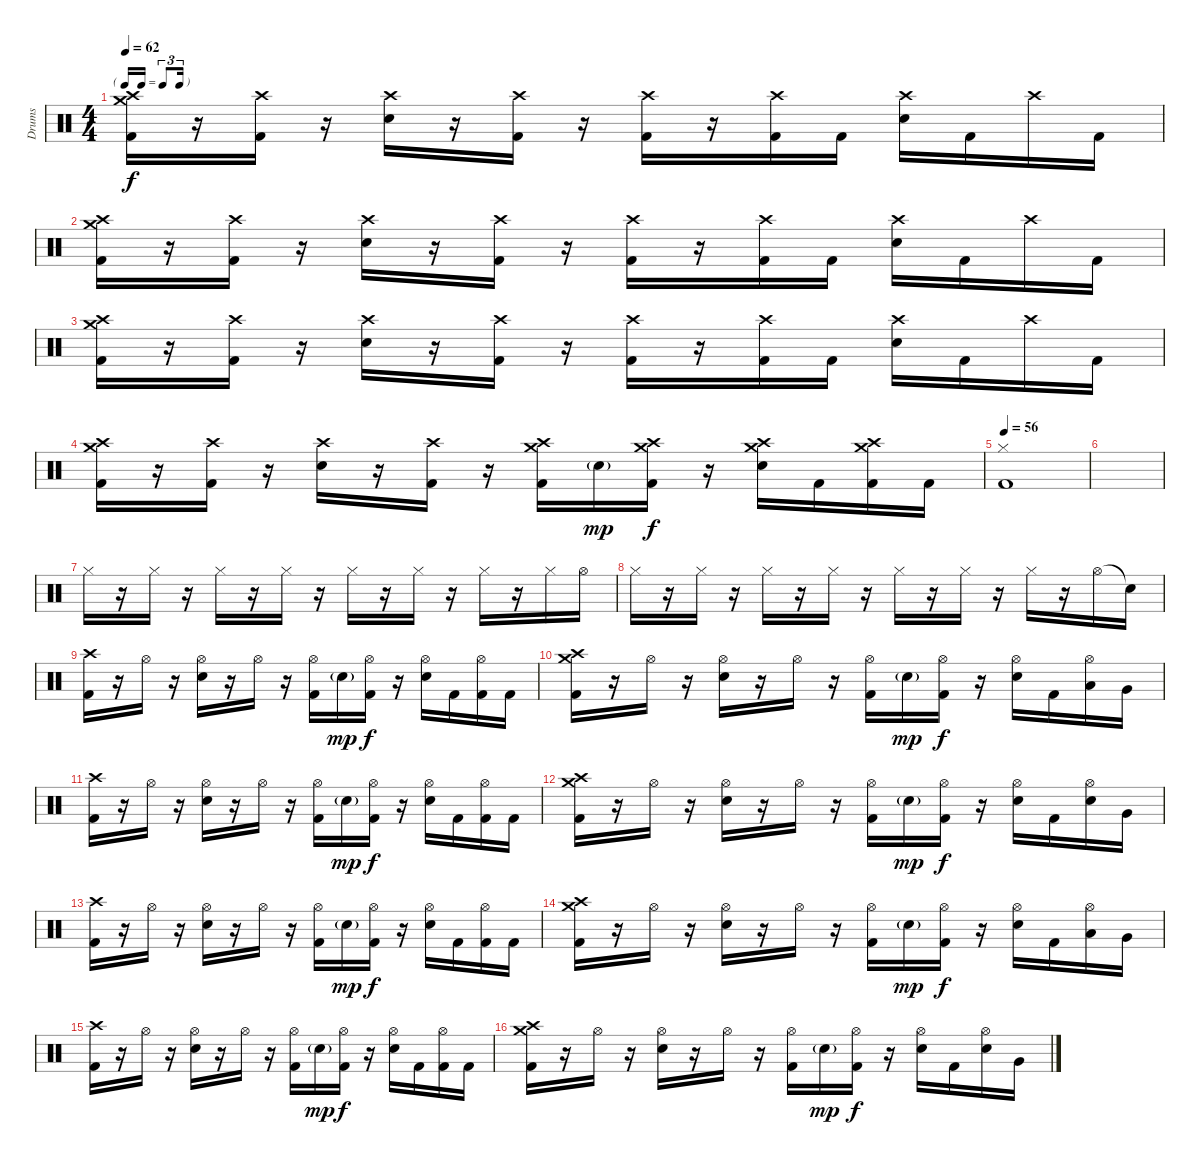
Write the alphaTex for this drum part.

\track ("Drums" "Drums") {instrument percussion}
\staff
\articulation defaults
\ts (4 4)
\tf triplet16th
\tempo 62
\clef neutral
\ks c
("Kick (hit) 2" "Crash high (hit)" "Crash medium (hit)").16{dy f} r.16 ("Kick (hit) 2" "Crash high (hit)").16 r.16 ("Electric Snare (hit)" "Crash high (hit)").16 r.16 ("Kick (hit) 2" "Crash high (hit)").16 r.16 ("Kick (hit) 2" "Crash high (hit)").16 r.16 ("Kick (hit) 2" "Crash high (hit)").16 "Kick (hit) 2".16 ("Electric Snare (hit)" "Crash high (hit)").16 "Kick (hit) 2".16 "Crash high (hit)".16 "Kick (hit) 2".16 |
("Kick (hit) 2" "Crash medium (hit)" "Crash high (hit)").16 r.16 ("Kick (hit) 2" "Crash high (hit)").16 r.16 ("Electric Snare (hit)" "Crash high (hit)").16 r.16 ("Kick (hit) 2" "Crash high (hit)").16 r.16 ("Kick (hit) 2" "Crash high (hit)").16 r.16 ("Kick (hit) 2" "Crash high (hit)").16 "Kick (hit) 2".16 ("Electric Snare (hit)" "Crash high (hit)").16 "Kick (hit) 2".16 "Crash high (hit)".16 "Kick (hit) 2".16 |
("Kick (hit) 2" "Crash high (hit)" "Crash medium (hit)").16 r.16 ("Kick (hit) 2" "Crash high (hit)").16 r.16 ("Electric Snare (hit)" "Crash high (hit)").16 r.16 ("Kick (hit) 2" "Crash high (hit)").16 r.16 ("Kick (hit) 2" "Crash high (hit)").16 r.16 ("Kick (hit) 2" "Crash high (hit)").16 "Kick (hit) 2".16 ("Electric Snare (hit)" "Crash high (hit)").16 "Kick (hit) 2".16 "Crash high (hit)".16 "Kick (hit) 2".16 |
("Kick (hit) 2" "Crash high (hit)" "Crash medium (hit)").16 r.16 ("Kick (hit) 2" "Crash high (hit)").16 r.16 ("Electric Snare (hit)" "Crash high (hit)").16 r.16 ("Kick (hit) 2" "Crash high (hit)").16 r.16 ("Kick (hit) 2" "Crash high (hit)" "Crash medium (hit)").16 "Electric Snare (hit)"{g}.16{dy mp} ("Kick (hit) 2" "Crash high (hit)" "Crash medium (hit)").16{dy f} r.16 ("Electric Snare (hit)" "Crash high (hit)" "Crash medium (hit)").16 "Kick (hit) 2".16 ("Kick (hit) 2" "Crash high (hit)" "Crash medium (hit)").16 "Kick (hit) 2".16 |
\tempo 56
("Kick (hit) 2" "Hi-Hat (closed)").1 |
|
"Hi-Hat (closed)".16 r.16 "Hi-Hat (closed)".16 r.16 "Hi-Hat (closed)".16 r.16 "Hi-Hat (closed)".16 r.16 "Hi-Hat (closed)".16 r.16 "Hi-Hat (closed)".16 r.16 "Hi-Hat (closed)".16 r.16 "Hi-Hat (closed)".16 "Hi-Hat (open)".16 |
"Hi-Hat (closed)".16 r.16 "Hi-Hat (closed)".16 r.16 "Hi-Hat (closed)".16 r.16 "Hi-Hat (closed)".16 r.16 "Hi-Hat (closed)".16 r.16 "Hi-Hat (closed)".16 r.16 "Hi-Hat (closed)".16 r.16 "Hi-Hat (open)".16 "Snare (hit)"{t}.16 |
("Kick (hit) 2" "Crash high (hit)").16 r.16 "Hi-Hat (open)".16 r.16 ("Electric Snare (hit)" "Hi-Hat (open)").16 r.16 "Hi-Hat (open)".16 r.16 ("Kick (hit) 2" "Hi-Hat (open)").16 "Electric Snare (hit)"{g}.16{dy mp} ("Kick (hit) 2" "Hi-Hat (open)").16{dy f} r.16 ("Electric Snare (hit)" "Hi-Hat (open)").16 "Kick (hit) 2".16 ("Kick (hit) 2" "Hi-Hat (open)").16 "Kick (hit) 2".16 |
("Kick (hit) 2" "Crash high (hit)" "Crash medium (hit)").16 r.16 "Hi-Hat (open)".16 r.16 ("Electric Snare (hit)" "Hi-Hat (open)").16 r.16 "Hi-Hat (open)".16 r.16 ("Kick (hit) 2" "Hi-Hat (open)").16 "Electric Snare (hit)"{g}.16{dy mp} ("Kick (hit) 2" "Hi-Hat (open)").16{dy f} r.16 ("Electric Snare (hit)" "Hi-Hat (open)").16 "Kick (hit) 2".16 ("Low Tom (hit)" "Hi-Hat (open)").16 "Very Low Tom (hit)".16 |
("Kick (hit) 2" "Crash high (hit)").16 r.16 "Hi-Hat (open)".16 r.16 ("Electric Snare (hit)" "Hi-Hat (open)").16 r.16 "Hi-Hat (open)".16 r.16 ("Kick (hit) 2" "Hi-Hat (open)").16 "Electric Snare (hit)"{g}.16{dy mp} ("Kick (hit) 2" "Hi-Hat (open)").16{dy f} r.16 ("Electric Snare (hit)" "Hi-Hat (open)").16 "Kick (hit) 2".16 ("Kick (hit) 2" "Hi-Hat (open)").16 "Kick (hit) 2".16 |
("Kick (hit) 2" "Crash high (hit)" "Crash medium (hit)").16 r.16 "Hi-Hat (open)".16 r.16 ("Electric Snare (hit)" "Hi-Hat (open)").16 r.16 "Hi-Hat (open)".16 r.16 ("Kick (hit) 2" "Hi-Hat (open)").16 "Electric Snare (hit)"{g}.16{dy mp} ("Kick (hit) 2" "Hi-Hat (open)").16{dy f} r.16 ("Electric Snare (hit)" "Hi-Hat (open)").16 "Kick (hit) 2".16 ("Electric Snare (hit)" "Hi-Hat (open)").16 "Very Low Tom (hit)".16 |
("Kick (hit) 2" "Crash high (hit)").16 r.16 "Hi-Hat (open)".16 r.16 ("Electric Snare (hit)" "Hi-Hat (open)").16 r.16 "Hi-Hat (open)".16 r.16 ("Kick (hit) 2" "Hi-Hat (open)").16 "Electric Snare (hit)"{g}.16{dy mp} ("Kick (hit) 2" "Hi-Hat (open)").16{dy f} r.16 ("Electric Snare (hit)" "Hi-Hat (open)").16 "Kick (hit) 2".16 ("Kick (hit) 2" "Hi-Hat (open)").16 "Kick (hit) 2".16 |
("Kick (hit) 2" "Crash high (hit)" "Crash medium (hit)").16 r.16 "Hi-Hat (open)".16 r.16 ("Electric Snare (hit)" "Hi-Hat (open)").16 r.16 "Hi-Hat (open)".16 r.16 ("Kick (hit) 2" "Hi-Hat (open)").16 "Electric Snare (hit)"{g}.16{dy mp} ("Kick (hit) 2" "Hi-Hat (open)").16{dy f} r.16 ("Electric Snare (hit)" "Hi-Hat (open)").16 "Kick (hit) 2".16 ("Low Tom (hit)" "Hi-Hat (open)").16 "Very Low Tom (hit)".16 |
("Kick (hit) 2" "Crash high (hit)").16 r.16 "Hi-Hat (open)".16 r.16 ("Electric Snare (hit)" "Hi-Hat (open)").16 r.16 "Hi-Hat (open)".16 r.16 ("Kick (hit) 2" "Hi-Hat (open)").16 "Electric Snare (hit)"{g}.16{dy mp} ("Kick (hit) 2" "Hi-Hat (open)").16{dy f} r.16 ("Electric Snare (hit)" "Hi-Hat (open)").16 "Kick (hit) 2".16 ("Kick (hit) 2" "Hi-Hat (open)").16 "Kick (hit) 2".16 |
("Kick (hit) 2" "Crash high (hit)" "Crash medium (hit)").16 r.16 "Hi-Hat (open)".16 r.16 ("Electric Snare (hit)" "Hi-Hat (open)").16 r.16 "Hi-Hat (open)".16 r.16 ("Kick (hit) 2" "Hi-Hat (open)").16 "Electric Snare (hit)"{g}.16{dy mp} ("Kick (hit) 2" "Hi-Hat (open)").16{dy f} r.16 ("Electric Snare (hit)" "Hi-Hat (open)").16 "Kick (hit) 2".16 ("Electric Snare (hit)" "Hi-Hat (open)").16 "Very Low Tom (hit)".16
